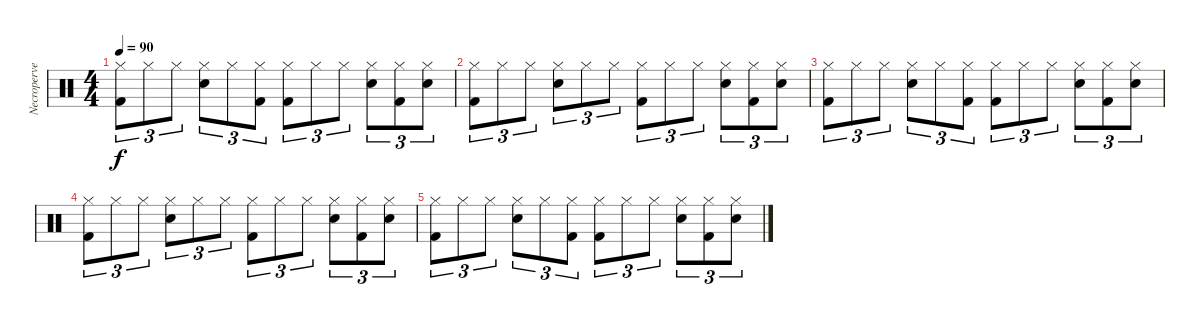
\track ("Necroperversor" "Necroperve") {instrument percussion}
\staff {score}
\articulation defaults
\ts (4 4)
\tempo 90
\clef neutral
\ks c
("Hi-Hat (closed)" "Kick (hit) 2").8{tu (3 2) dy f} "Hi-Hat (closed)".8{tu (3 2)} "Hi-Hat (closed)".8{tu (3 2)} ("Hi-Hat (closed)" "Electric Snare (hit)").8{tu (3 2)} "Hi-Hat (closed)".8{tu (3 2)} ("Hi-Hat (closed)" "Kick (hit) 2").8{tu (3 2)} ("Hi-Hat (closed)" "Kick (hit) 2").8{tu (3 2)} "Hi-Hat (closed)".8{tu (3 2)} "Hi-Hat (closed)".8{tu (3 2)} ("Hi-Hat (closed)" "Electric Snare (hit)").8{tu (3 2)} ("Hi-Hat (closed)" "Kick (hit) 2").8{tu (3 2)} ("Hi-Hat (closed)" "Electric Snare (hit)").8{tu (3 2)} |
("Hi-Hat (closed)" "Kick (hit) 2").8{tu (3 2)} "Hi-Hat (closed)".8{tu (3 2)} "Hi-Hat (closed)".8{tu (3 2)} ("Hi-Hat (closed)" "Electric Snare (hit)").8{tu (3 2)} "Hi-Hat (closed)".8{tu (3 2)} "Hi-Hat (closed)".8{tu (3 2)} ("Hi-Hat (closed)" "Kick (hit) 2").8{tu (3 2)} "Hi-Hat (closed)".8{tu (3 2)} "Hi-Hat (closed)".8{tu (3 2)} ("Hi-Hat (closed)" "Electric Snare (hit)").8{tu (3 2)} ("Hi-Hat (closed)" "Kick (hit) 2").8{tu (3 2)} ("Hi-Hat (closed)" "Electric Snare (hit)").8{tu (3 2)} |
("Hi-Hat (closed)" "Kick (hit) 2").8{tu (3 2)} "Hi-Hat (closed)".8{tu (3 2)} "Hi-Hat (closed)".8{tu (3 2)} ("Hi-Hat (closed)" "Electric Snare (hit)").8{tu (3 2)} "Hi-Hat (closed)".8{tu (3 2)} ("Hi-Hat (closed)" "Kick (hit) 2").8{tu (3 2)} ("Hi-Hat (closed)" "Kick (hit) 2").8{tu (3 2)} "Hi-Hat (closed)".8{tu (3 2)} "Hi-Hat (closed)".8{tu (3 2)} ("Hi-Hat (closed)" "Electric Snare (hit)").8{tu (3 2)} ("Hi-Hat (closed)" "Kick (hit) 2").8{tu (3 2)} ("Hi-Hat (closed)" "Electric Snare (hit)").8{tu (3 2)} |
("Hi-Hat (closed)" "Kick (hit) 2").8{tu (3 2)} "Hi-Hat (closed)".8{tu (3 2)} "Hi-Hat (closed)".8{tu (3 2)} ("Hi-Hat (closed)" "Electric Snare (hit)").8{tu (3 2)} "Hi-Hat (closed)".8{tu (3 2)} "Hi-Hat (closed)".8{tu (3 2)} ("Hi-Hat (closed)" "Kick (hit) 2").8{tu (3 2)} "Hi-Hat (closed)".8{tu (3 2)} "Hi-Hat (closed)".8{tu (3 2)} ("Hi-Hat (closed)" "Electric Snare (hit)").8{tu (3 2)} ("Hi-Hat (closed)" "Kick (hit) 2").8{tu (3 2)} ("Hi-Hat (closed)" "Electric Snare (hit)").8{tu (3 2)} |
("Hi-Hat (closed)" "Kick (hit) 2").8{tu (3 2)} "Hi-Hat (closed)".8{tu (3 2)} "Hi-Hat (closed)".8{tu (3 2)} ("Hi-Hat (closed)" "Electric Snare (hit)").8{tu (3 2)} "Hi-Hat (closed)".8{tu (3 2)} ("Hi-Hat (closed)" "Kick (hit) 2").8{tu (3 2)} ("Hi-Hat (closed)" "Kick (hit) 2").8{tu (3 2)} "Hi-Hat (closed)".8{tu (3 2)} "Hi-Hat (closed)".8{tu (3 2)} ("Hi-Hat (closed)" "Electric Snare (hit)").8{tu (3 2)} ("Hi-Hat (closed)" "Kick (hit) 2").8{tu (3 2)} ("Hi-Hat (closed)" "Electric Snare (hit)").8{tu (3 2)}
